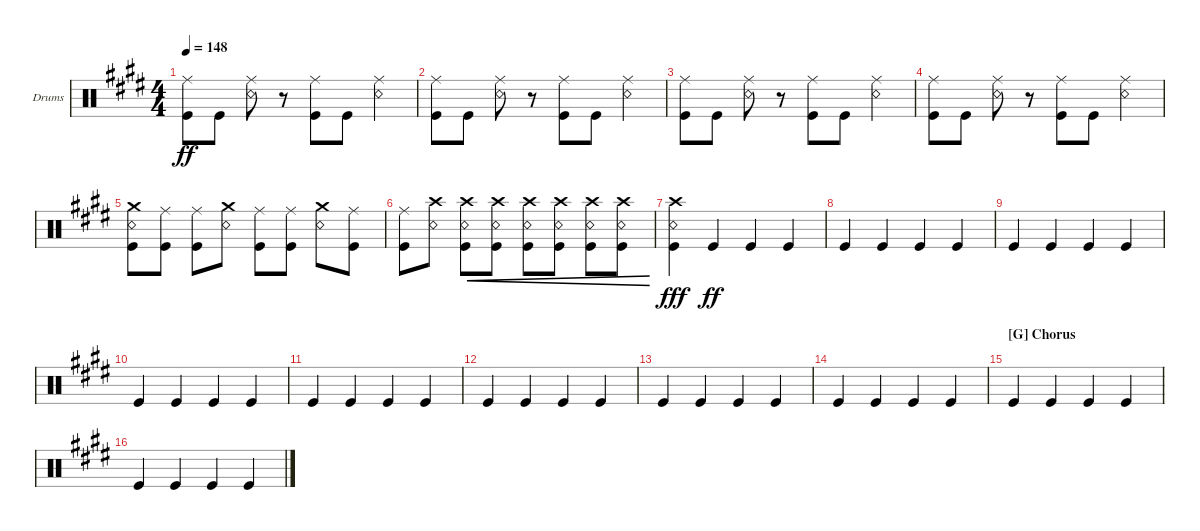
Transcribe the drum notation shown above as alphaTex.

\bracketExtendMode groupsimilarinstruments
\firstSystemTrackNameOrientation horizontal
\otherSystemsTrackNameOrientation horizontal
\track ("Drums" "Drums") {instrument percussion}
\staff {score}
\articulation defaults
\ts (4 4)
\tempo 148
\clef neutral
\ks e
("Kick (hit)" "Ride (middle)").8{dy ff} "Kick (hit)".8 ("Snare (rim shot)" "Ride (middle)").8 r.8 ("Kick (hit)" "Ride (middle)").8 "Kick (hit)".8 ("Snare (rim shot)" "Ride (middle)").4 |
("Kick (hit)" "Ride (middle)").8 "Kick (hit)".8 ("Snare (rim shot)" "Ride (middle)").8 r.8 ("Kick (hit)" "Ride (middle)").8 "Kick (hit)".8 ("Snare (rim shot)" "Ride (middle)").4 |
("Kick (hit)" "Ride (middle)").8 "Kick (hit)".8 ("Snare (rim shot)" "Ride (middle)").8 r.8 ("Kick (hit)" "Ride (middle)").8 "Kick (hit)".8 ("Snare (rim shot)" "Ride (middle)").4 |
("Kick (hit)" "Ride (middle)").8 "Kick (hit)".8 ("Snare (rim shot)" "Ride (middle)").8 r.8 ("Kick (hit)" "Ride (middle)").8 "Kick (hit)".8 ("Snare (rim shot)" "Ride (middle)").4 |
("Kick (hit)" "Crash medium (hit)" "Snare (rim shot)").8 ("Kick (hit)" "Ride (middle)").8 ("Kick (hit)" "Ride (middle)").8 ("Snare (rim shot)" "Crash medium (hit)").8 ("Kick (hit)" "Ride (middle)").8 ("Kick (hit)" "Ride (middle)").8 ("Snare (rim shot)" "Crash medium (hit)").8 ("Ride (middle)" "Kick (hit)").8 |
("Kick (hit)" "Ride (middle)").8 ("Snare (rim shot)" "Crash high (hit)").8 ("Kick (hit)" "Crash high (hit)" "Snare (rim shot)").8{cre} ("Kick (hit)" "Crash high (hit)" "Snare (rim shot)").8{cre} ("Snare (rim shot)" "Kick (hit)" "Crash high (hit)").8{cre} ("Kick (hit)" "Snare (rim shot)" "Crash high (hit)").8{cre} ("Kick (hit)" "Snare (rim shot)" "Crash high (hit)").8{cre} ("Snare (rim shot)" "Kick (hit)" "Crash high (hit)").8{cre} |
("Snare (rim shot)" "Kick (hit)" "Crash high (hit)").4{dy fff} "Kick (hit)".4{dy ff} "Kick (hit)".4 "Kick (hit)".4 |
"Kick (hit)".4 "Kick (hit)".4 "Kick (hit)".4 "Kick (hit)".4 |
"Kick (hit)".4 "Kick (hit)".4 "Kick (hit)".4 "Kick (hit)".4 |
"Kick (hit)".4 "Kick (hit)".4 "Kick (hit)".4 "Kick (hit)".4 |
"Kick (hit)".4 "Kick (hit)".4 "Kick (hit)".4 "Kick (hit)".4 |
"Kick (hit)".4 "Kick (hit)".4 "Kick (hit)".4 "Kick (hit)".4 |
"Kick (hit)".4 "Kick (hit)".4 "Kick (hit)".4 "Kick (hit)".4 |
"Kick (hit)".4 "Kick (hit)".4 "Kick (hit)".4 "Kick (hit)".4 |
\section ("G" "Chorus")
"Kick (hit)".4 "Kick (hit)".4 "Kick (hit)".4 "Kick (hit)".4 |
"Kick (hit)".4 "Kick (hit)".4 "Kick (hit)".4 "Kick (hit)".4
